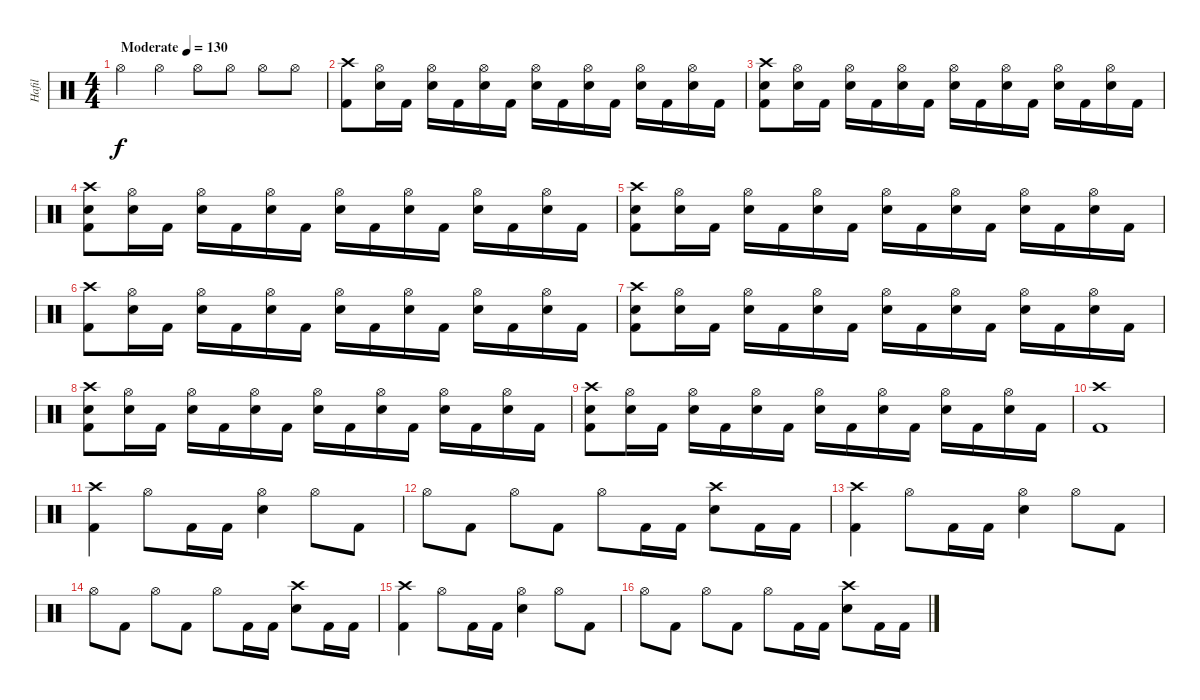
\track ("Hafil" "Hafil") {instrument percussion}
\staff {score}
\articulation defaults
\ts (4 4)
\tempo (130 "Moderate")
\clef neutral
\ks c "Hi-Hat (open)".4{dy f} "Hi-Hat (open)".4 "Hi-Hat (open)".8 "Hi-Hat (open)".8 "Hi-Hat (open)".8 "Hi-Hat (open)".8
|
("Crash high (hit)" "Kick (hit) 2").8 ("Hi-Hat (open)" "Electric Snare (hit)").16 "Kick (hit) 2".16 ("Hi-Hat (open)" "Electric Snare (hit)").16 "Kick (hit) 2".16 ("Hi-Hat (open)" "Electric Snare (hit)").16 "Kick (hit) 2".16 ("Electric Snare (hit)" "Hi-Hat (open)").16 "Kick (hit) 2".16 ("Electric Snare (hit)" "Hi-Hat (open)").16 "Kick (hit) 2".16 ("Electric Snare (hit)" "Hi-Hat (open)").16 "Kick (hit) 2".16 ("Electric Snare (hit)" "Hi-Hat (open)").16 "Kick (hit) 2".16 |
("Crash high (hit)" "Kick (hit) 2" "Electric Snare (hit)").8 ("Hi-Hat (open)" "Electric Snare (hit)").16 "Kick (hit) 2".16 ("Hi-Hat (open)" "Electric Snare (hit)").16 "Kick (hit) 2".16 ("Hi-Hat (open)" "Electric Snare (hit)").16 "Kick (hit) 2".16 ("Electric Snare (hit)" "Hi-Hat (open)").16 "Kick (hit) 2".16 ("Electric Snare (hit)" "Hi-Hat (open)").16 "Kick (hit) 2".16 ("Electric Snare (hit)" "Hi-Hat (open)").16 "Kick (hit) 2".16 ("Electric Snare (hit)" "Hi-Hat (open)").16 "Kick (hit) 2".16 |
("Crash high (hit)" "Kick (hit) 2" "Electric Snare (hit)").8 ("Hi-Hat (open)" "Electric Snare (hit)").16 "Kick (hit) 2".16 ("Hi-Hat (open)" "Electric Snare (hit)").16 "Kick (hit) 2".16 ("Hi-Hat (open)" "Electric Snare (hit)").16 "Kick (hit) 2".16 ("Electric Snare (hit)" "Hi-Hat (open)").16 "Kick (hit) 2".16 ("Electric Snare (hit)" "Hi-Hat (open)").16 "Kick (hit) 2".16 ("Electric Snare (hit)" "Hi-Hat (open)").16 "Kick (hit) 2".16 ("Electric Snare (hit)" "Hi-Hat (open)").16 "Kick (hit) 2".16 |
("Crash high (hit)" "Kick (hit) 2" "Electric Snare (hit)").8 ("Hi-Hat (open)" "Electric Snare (hit)").16 "Kick (hit) 2".16 ("Hi-Hat (open)" "Electric Snare (hit)").16 "Kick (hit) 2".16 ("Hi-Hat (open)" "Electric Snare (hit)").16 "Kick (hit) 2".16 ("Electric Snare (hit)" "Hi-Hat (open)").16 "Kick (hit) 2".16 ("Electric Snare (hit)" "Hi-Hat (open)").16 "Kick (hit) 2".16 ("Electric Snare (hit)" "Hi-Hat (open)").16 "Kick (hit) 2".16 ("Electric Snare (hit)" "Hi-Hat (open)").16 "Kick (hit) 2".16 |
("Crash high (hit)" "Kick (hit) 2").8 ("Hi-Hat (open)" "Electric Snare (hit)").16 "Kick (hit) 2".16 ("Hi-Hat (open)" "Electric Snare (hit)").16 "Kick (hit) 2".16 ("Hi-Hat (open)" "Electric Snare (hit)").16 "Kick (hit) 2".16 ("Electric Snare (hit)" "Hi-Hat (open)").16 "Kick (hit) 2".16 ("Electric Snare (hit)" "Hi-Hat (open)").16 "Kick (hit) 2".16 ("Electric Snare (hit)" "Hi-Hat (open)").16 "Kick (hit) 2".16 ("Electric Snare (hit)" "Hi-Hat (open)").16 "Kick (hit) 2".16 |
("Crash high (hit)" "Kick (hit) 2" "Electric Snare (hit)").8 ("Hi-Hat (open)" "Electric Snare (hit)").16 "Kick (hit) 2".16 ("Hi-Hat (open)" "Electric Snare (hit)").16 "Kick (hit) 2".16 ("Hi-Hat (open)" "Electric Snare (hit)").16 "Kick (hit) 2".16 ("Electric Snare (hit)" "Hi-Hat (open)").16 "Kick (hit) 2".16 ("Electric Snare (hit)" "Hi-Hat (open)").16 "Kick (hit) 2".16 ("Electric Snare (hit)" "Hi-Hat (open)").16 "Kick (hit) 2".16 ("Electric Snare (hit)" "Hi-Hat (open)").16 "Kick (hit) 2".16 |
("Crash high (hit)" "Kick (hit) 2" "Electric Snare (hit)").8 ("Hi-Hat (open)" "Electric Snare (hit)").16 "Kick (hit) 2".16 ("Hi-Hat (open)" "Electric Snare (hit)").16 "Kick (hit) 2".16 ("Hi-Hat (open)" "Electric Snare (hit)").16 "Kick (hit) 2".16 ("Electric Snare (hit)" "Hi-Hat (open)").16 "Kick (hit) 2".16 ("Electric Snare (hit)" "Hi-Hat (open)").16 "Kick (hit) 2".16 ("Electric Snare (hit)" "Hi-Hat (open)").16 "Kick (hit) 2".16 ("Electric Snare (hit)" "Hi-Hat (open)").16 "Kick (hit) 2".16 |
("Crash high (hit)" "Kick (hit) 2" "Electric Snare (hit)").8 ("Hi-Hat (open)" "Electric Snare (hit)").16 "Kick (hit) 2".16 ("Hi-Hat (open)" "Electric Snare (hit)").16 "Kick (hit) 2".16 ("Hi-Hat (open)" "Electric Snare (hit)").16 "Kick (hit) 2".16 ("Electric Snare (hit)" "Hi-Hat (open)").16 "Kick (hit) 2".16 ("Electric Snare (hit)" "Hi-Hat (open)").16 "Kick (hit) 2".16 ("Electric Snare (hit)" "Hi-Hat (open)").16 "Kick (hit) 2".16 ("Electric Snare (hit)" "Hi-Hat (open)").16 "Kick (hit) 2".16 |
("Crash high (hit)" "Kick (hit) 2").1 |
("Crash high (hit)" "Kick (hit) 2").4 "Hi-Hat (open)".8 "Kick (hit) 2".16 "Kick (hit) 2".16 ("Hi-Hat (open)" "Electric Snare (hit)").4 "Hi-Hat (open)".8 "Kick (hit) 2".8 |
"Hi-Hat (open)".8 "Kick (hit) 2".8 "Hi-Hat (open)".8 "Kick (hit) 2".8 "Hi-Hat (open)".8 "Kick (hit) 2".16 "Kick (hit) 2".16 ("Electric Snare (hit)" "Crash high (hit)").8 "Kick (hit) 2".16 "Kick (hit) 2".16 |
("Crash high (hit)" "Kick (hit) 2").4 "Hi-Hat (open)".8 "Kick (hit) 2".16 "Kick (hit) 2".16 ("Hi-Hat (open)" "Electric Snare (hit)").4 "Hi-Hat (open)".8 "Kick (hit) 2".8 |
"Hi-Hat (open)".8 "Kick (hit) 2".8 "Hi-Hat (open)".8 "Kick (hit) 2".8 "Hi-Hat (open)".8 "Kick (hit) 2".16 "Kick (hit) 2".16 ("Electric Snare (hit)" "Crash high (hit)").8 "Kick (hit) 2".16 "Kick (hit) 2".16 |
("Crash high (hit)" "Kick (hit) 2").4 "Hi-Hat (open)".8 "Kick (hit) 2".16 "Kick (hit) 2".16 ("Hi-Hat (open)" "Electric Snare (hit)").4 "Hi-Hat (open)".8 "Kick (hit) 2".8 |
"Hi-Hat (open)".8 "Kick (hit) 2".8 "Hi-Hat (open)".8 "Kick (hit) 2".8 "Hi-Hat (open)".8 "Kick (hit) 2".16 "Kick (hit) 2".16 ("Electric Snare (hit)" "Crash high (hit)").8 "Kick (hit) 2".16 "Kick (hit) 2".16
